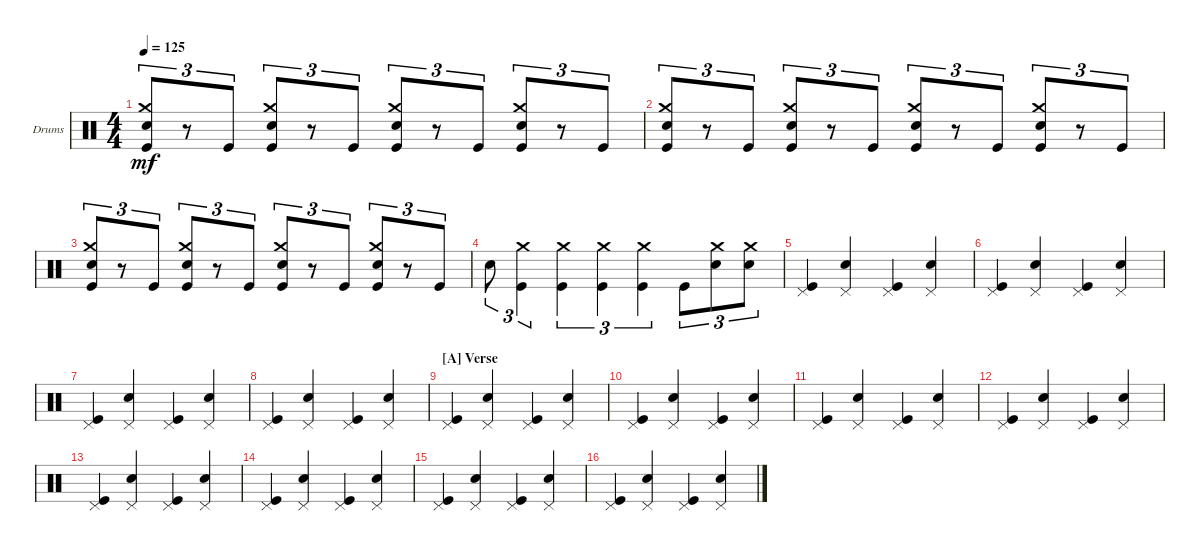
\defaultSystemsLayout 4
\bracketExtendMode groupsimilarinstruments
\firstSystemTrackNameOrientation horizontal
\otherSystemsTrackNameOrientation horizontal
\track ("Drumkit" "Drums") {instrument percussion}
\staff {score}
\articulation defaults
\ts (4 4)
\tempo 125
\clef neutral
\ks c
("Kick (hit)" "Crash medium (hit)" "Snare (hit) 2").8{tu (3 2) dy mf} r.8{tu (3 2)} "Kick (hit)".8{tu (3 2)} ("Kick (hit)" "Snare (hit) 2" "Crash medium (hit)").8{tu (3 2)} r.8{tu (3 2)} "Kick (hit)".8{tu (3 2)} ("Kick (hit)" "Snare (hit) 2" "Crash medium (hit)").8{tu (3 2)} r.8{tu (3 2)} "Kick (hit)".8{tu (3 2)} ("Kick (hit)" "Crash medium (hit)" "Snare (hit) 2").8{tu (3 2)} r.8{tu (3 2)} "Kick (hit)".8{tu (3 2)} |
("Kick (hit)" "Crash medium (hit)" "Snare (hit) 2").8{tu (3 2)} r.8{tu (3 2)} "Kick (hit)".8{tu (3 2)} ("Kick (hit)" "Snare (hit) 2" "Crash medium (hit)").8{tu (3 2)} r.8{tu (3 2)} "Kick (hit)".8{tu (3 2)} ("Kick (hit)" "Snare (hit) 2" "Crash medium (hit)").8{tu (3 2)} r.8{tu (3 2)} "Kick (hit)".8{tu (3 2)} ("Kick (hit)" "Crash medium (hit)" "Snare (hit) 2").8{tu (3 2)} r.8{tu (3 2)} "Kick (hit)".8{tu (3 2)} |
("Kick (hit)" "Crash medium (hit)" "Snare (hit) 2").8{tu (3 2)} r.8{tu (3 2)} "Kick (hit)".8{tu (3 2)} ("Kick (hit)" "Snare (hit) 2" "Crash medium (hit)").8{tu (3 2)} r.8{tu (3 2)} "Kick (hit)".8{tu (3 2)} ("Kick (hit)" "Snare (hit) 2" "Crash medium (hit)").8{tu (3 2)} r.8{tu (3 2)} "Kick (hit)".8{tu (3 2)} ("Kick (hit)" "Crash medium (hit)" "Snare (hit) 2").8{tu (3 2)} r.8{tu (3 2)} "Kick (hit)".8{tu (3 2)} |
"Snare (hit) 2".8{tu (3 2)} ("Kick (hit)" "Crash medium (hit)").4{tu (3 2)} ("Kick (hit)" "Crash medium (hit)").4{tu (3 2)} ("Kick (hit)" "Crash medium (hit)").4{tu (3 2)} ("Kick (hit)" "Crash medium (hit)").4{tu (3 2)} "Kick (hit)".8{tu (3 2)} ("Snare (hit) 2" "Crash medium (hit)").8{tu (3 2)} ("Snare (hit) 2" "Crash medium (hit)").8{tu (3 2)} |
("Kick (hit)" "Pedal Hi-Hat (hit)").4 ("Snare (hit) 2" "Pedal Hi-Hat (hit)").4 ("Kick (hit)" "Pedal Hi-Hat (hit)").4 ("Snare (hit) 2" "Pedal Hi-Hat (hit)").4 |
("Kick (hit)" "Pedal Hi-Hat (hit)").4 ("Snare (hit) 2" "Pedal Hi-Hat (hit)").4 ("Kick (hit)" "Pedal Hi-Hat (hit)").4 ("Snare (hit) 2" "Pedal Hi-Hat (hit)").4 |
("Kick (hit)" "Pedal Hi-Hat (hit)").4 ("Snare (hit) 2" "Pedal Hi-Hat (hit)").4 ("Kick (hit)" "Pedal Hi-Hat (hit)").4 ("Snare (hit) 2" "Pedal Hi-Hat (hit)").4 |
("Kick (hit)" "Pedal Hi-Hat (hit)").4 ("Snare (hit) 2" "Pedal Hi-Hat (hit)").4 ("Kick (hit)" "Pedal Hi-Hat (hit)").4 ("Snare (hit) 2" "Pedal Hi-Hat (hit)").4 |
\section ("A" "Verse")
("Kick (hit)" "Pedal Hi-Hat (hit)").4 ("Snare (hit) 2" "Pedal Hi-Hat (hit)").4 ("Kick (hit)" "Pedal Hi-Hat (hit)").4 ("Snare (hit) 2" "Pedal Hi-Hat (hit)").4 |
("Kick (hit)" "Pedal Hi-Hat (hit)").4 ("Snare (hit) 2" "Pedal Hi-Hat (hit)").4 ("Kick (hit)" "Pedal Hi-Hat (hit)").4 ("Snare (hit) 2" "Pedal Hi-Hat (hit)").4 |
("Kick (hit)" "Pedal Hi-Hat (hit)").4 ("Snare (hit) 2" "Pedal Hi-Hat (hit)").4 ("Kick (hit)" "Pedal Hi-Hat (hit)").4 ("Snare (hit) 2" "Pedal Hi-Hat (hit)").4 |
("Kick (hit)" "Pedal Hi-Hat (hit)").4 ("Snare (hit) 2" "Pedal Hi-Hat (hit)").4 ("Kick (hit)" "Pedal Hi-Hat (hit)").4 ("Snare (hit) 2" "Pedal Hi-Hat (hit)").4 |
("Kick (hit)" "Pedal Hi-Hat (hit)").4 ("Snare (hit) 2" "Pedal Hi-Hat (hit)").4 ("Kick (hit)" "Pedal Hi-Hat (hit)").4 ("Snare (hit) 2" "Pedal Hi-Hat (hit)").4 |
("Kick (hit)" "Pedal Hi-Hat (hit)").4 ("Snare (hit) 2" "Pedal Hi-Hat (hit)").4 ("Kick (hit)" "Pedal Hi-Hat (hit)").4 ("Snare (hit) 2" "Pedal Hi-Hat (hit)").4 |
("Kick (hit)" "Pedal Hi-Hat (hit)").4 ("Snare (hit) 2" "Pedal Hi-Hat (hit)").4 ("Kick (hit)" "Pedal Hi-Hat (hit)").4 ("Snare (hit) 2" "Pedal Hi-Hat (hit)").4 |
("Kick (hit)" "Pedal Hi-Hat (hit)").4 ("Snare (hit) 2" "Pedal Hi-Hat (hit)").4 ("Kick (hit)" "Pedal Hi-Hat (hit)").4 ("Snare (hit) 2" "Pedal Hi-Hat (hit)").4
